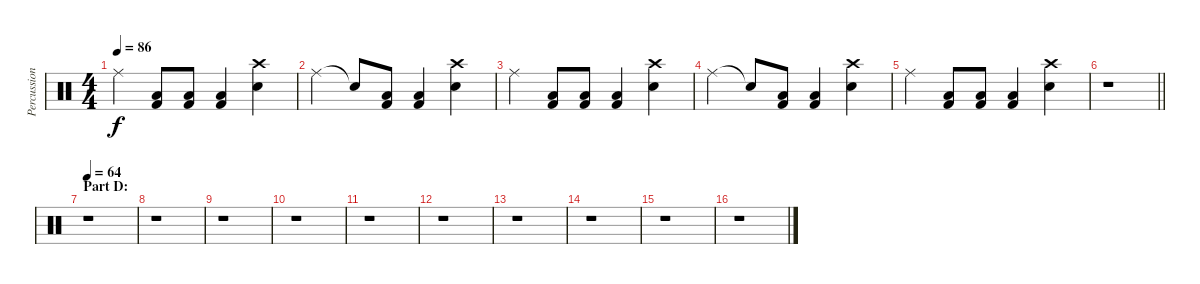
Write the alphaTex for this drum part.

\track ("Percussion" "Percussion") {instrument percussion}
\staff {score}
\articulation defaults
\ts (4 4)
\tempo 86
\clef neutral
\ks c "Ride (middle)".4{dy f}
("Low Tom (hit)" "Kick (hit) 2").8 ("Low Tom (hit)" "Kick (hit) 2").8 ("Low Tom (hit)" "Kick (hit) 2").4 ("Crash high (hit)" "Snare (hit) 2").4 |
"Ride (middle)".4 "Snare (hit)"{t}.8 ("Low Tom (hit)" "Kick (hit) 2").8 ("Low Tom (hit)" "Kick (hit) 2").4 ("Crash high (hit)" "Snare (hit) 2").4 |
"Ride (middle)".4 ("Low Tom (hit)" "Kick (hit) 2").8 ("Low Tom (hit)" "Kick (hit) 2").8 ("Low Tom (hit)" "Kick (hit) 2").4 ("Crash high (hit)" "Snare (hit) 2").4 |
"Ride (middle)".4 "Snare (hit)"{t}.8 ("Low Tom (hit)" "Kick (hit) 2").8 ("Low Tom (hit)" "Kick (hit) 2").4 ("Crash high (hit)" "Snare (hit) 2").4 |
"Ride (middle)".4 ("Low Tom (hit)" "Kick (hit) 2").8 ("Low Tom (hit)" "Kick (hit) 2").8 ("Low Tom (hit)" "Kick (hit) 2").4 ("Crash high (hit)" "Snare (hit) 2").4 |
\barLineRight lightlight
r.1 |
\section ("" "Part D:")
\tempo 64
r.1 |
r.1 |
r.1 |
r.1 |
r.1 |
r.1 |
r.1 |
r.1 |
r.1 |
r.1
